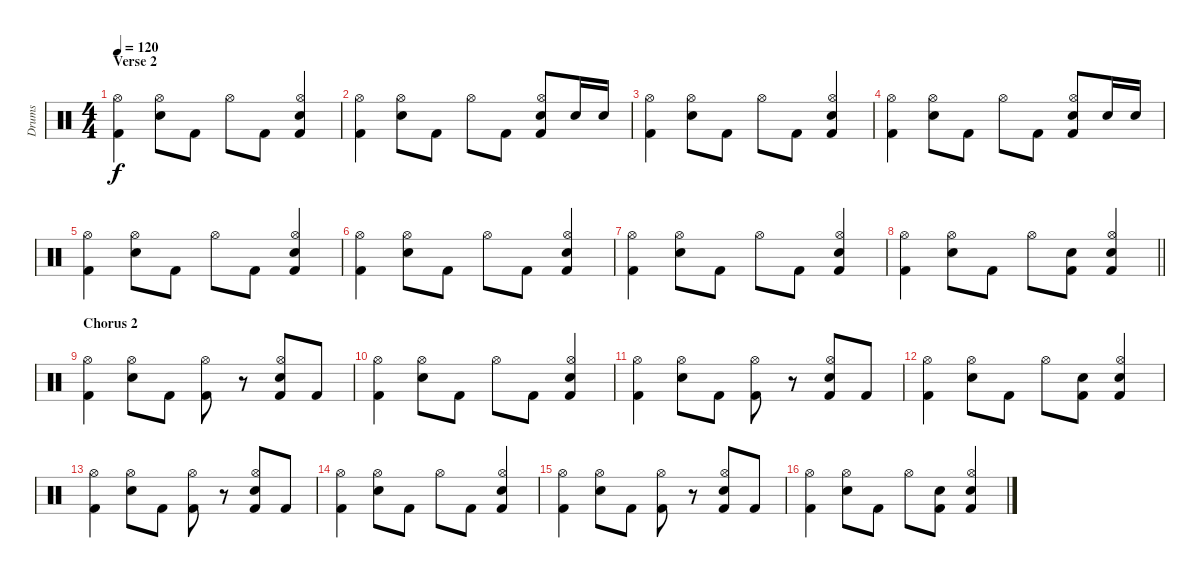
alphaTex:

\track ("Drums" "Drums") {instrument percussion}
\staff {score}
\articulation defaults
\ts (4 4)
\section ("" "Verse 2")
\tempo 120
\clef neutral
\ks c
("Kick (hit) 2" "Hi-Hat (open)").4{dy f} ("Snare (hit) 2" "Hi-Hat (open)").8 "Kick (hit) 2".8 "Hi-Hat (open)".8 "Kick (hit) 2".8 ("Kick (hit) 2" "Snare (hit) 2" "Hi-Hat (open)").4 |
("Kick (hit) 2" "Hi-Hat (open)").4 ("Snare (hit) 2" "Hi-Hat (open)").8 "Kick (hit) 2".8 "Hi-Hat (open)".8 "Kick (hit) 2".8 ("Kick (hit) 2" "Snare (hit) 2" "Hi-Hat (open)").8 "Snare (hit) 2".16 "Snare (hit) 2".16 |
("Kick (hit) 2" "Hi-Hat (open)").4 ("Snare (hit) 2" "Hi-Hat (open)").8 "Kick (hit) 2".8 "Hi-Hat (open)".8 "Kick (hit) 2".8 ("Kick (hit) 2" "Snare (hit) 2" "Hi-Hat (open)").4 |
("Kick (hit) 2" "Hi-Hat (open)").4 ("Snare (hit) 2" "Hi-Hat (open)").8 "Kick (hit) 2".8 "Hi-Hat (open)".8 "Kick (hit) 2".8 ("Kick (hit) 2" "Snare (hit) 2" "Hi-Hat (open)").8 "Snare (hit) 2".16 "Snare (hit) 2".16 |
("Kick (hit) 2" "Hi-Hat (open)").4 ("Snare (hit) 2" "Hi-Hat (open)").8 "Kick (hit) 2".8 "Hi-Hat (open)".8 "Kick (hit) 2".8 ("Kick (hit) 2" "Snare (hit) 2" "Hi-Hat (open)").4 |
("Kick (hit) 2" "Hi-Hat (open)").4 ("Snare (hit) 2" "Hi-Hat (open)").8 "Kick (hit) 2".8 "Hi-Hat (open)".8 "Kick (hit) 2".8 ("Kick (hit) 2" "Snare (hit) 2" "Hi-Hat (open)").4 |
("Kick (hit) 2" "Hi-Hat (open)").4 ("Snare (hit) 2" "Hi-Hat (open)").8 "Kick (hit) 2".8 "Hi-Hat (open)".8 "Kick (hit) 2".8 ("Kick (hit) 2" "Snare (hit) 2" "Hi-Hat (open)").4 |
\barLineRight lightlight
("Kick (hit) 2" "Hi-Hat (open)").4 ("Snare (hit) 2" "Hi-Hat (open)").8 "Kick (hit) 2".8 "Hi-Hat (open)".8 ("Kick (hit) 2" "Snare (hit) 2").8 ("Kick (hit) 2" "Snare (hit) 2" "Hi-Hat (open)").4 |
\section ("" "Chorus 2")
("Kick (hit) 2" "Hi-Hat (open)").4 ("Snare (hit) 2" "Hi-Hat (open)").8 "Kick (hit) 2".8 ("Kick (hit) 2" "Hi-Hat (open)").8 r.8 ("Kick (hit) 2" "Snare (hit) 2" "Hi-Hat (open)").8 "Kick (hit) 2".8 |
("Kick (hit) 2" "Hi-Hat (open)").4 ("Snare (hit) 2" "Hi-Hat (open)").8 "Kick (hit) 2".8 "Hi-Hat (open)".8 "Kick (hit) 2".8 ("Kick (hit) 2" "Snare (hit) 2" "Hi-Hat (open)").4 |
("Kick (hit) 2" "Hi-Hat (open)").4 ("Snare (hit) 2" "Hi-Hat (open)").8 "Kick (hit) 2".8 ("Kick (hit) 2" "Hi-Hat (open)").8 r.8 ("Kick (hit) 2" "Snare (hit) 2" "Hi-Hat (open)").8 "Kick (hit) 2".8 |
("Kick (hit) 2" "Hi-Hat (open)").4 ("Snare (hit) 2" "Hi-Hat (open)").8 "Kick (hit) 2".8 "Hi-Hat (open)".8 ("Kick (hit) 2" "Snare (hit) 2").8 ("Kick (hit) 2" "Snare (hit) 2" "Hi-Hat (open)").4 |
("Kick (hit) 2" "Hi-Hat (open)").4 ("Snare (hit) 2" "Hi-Hat (open)").8 "Kick (hit) 2".8 ("Kick (hit) 2" "Hi-Hat (open)").8 r.8 ("Kick (hit) 2" "Snare (hit) 2" "Hi-Hat (open)").8 "Kick (hit) 2".8 |
("Kick (hit) 2" "Hi-Hat (open)").4 ("Snare (hit) 2" "Hi-Hat (open)").8 "Kick (hit) 2".8 "Hi-Hat (open)".8 "Kick (hit) 2".8 ("Kick (hit) 2" "Snare (hit) 2" "Hi-Hat (open)").4 |
("Kick (hit) 2" "Hi-Hat (open)").4 ("Snare (hit) 2" "Hi-Hat (open)").8 "Kick (hit) 2".8 ("Kick (hit) 2" "Hi-Hat (open)").8 r.8 ("Kick (hit) 2" "Snare (hit) 2" "Hi-Hat (open)").8 "Kick (hit) 2".8 |
("Kick (hit) 2" "Hi-Hat (open)").4 ("Snare (hit) 2" "Hi-Hat (open)").8 "Kick (hit) 2".8 "Hi-Hat (open)".8 ("Kick (hit) 2" "Snare (hit) 2").8 ("Kick (hit) 2" "Snare (hit) 2" "Hi-Hat (open)").4
